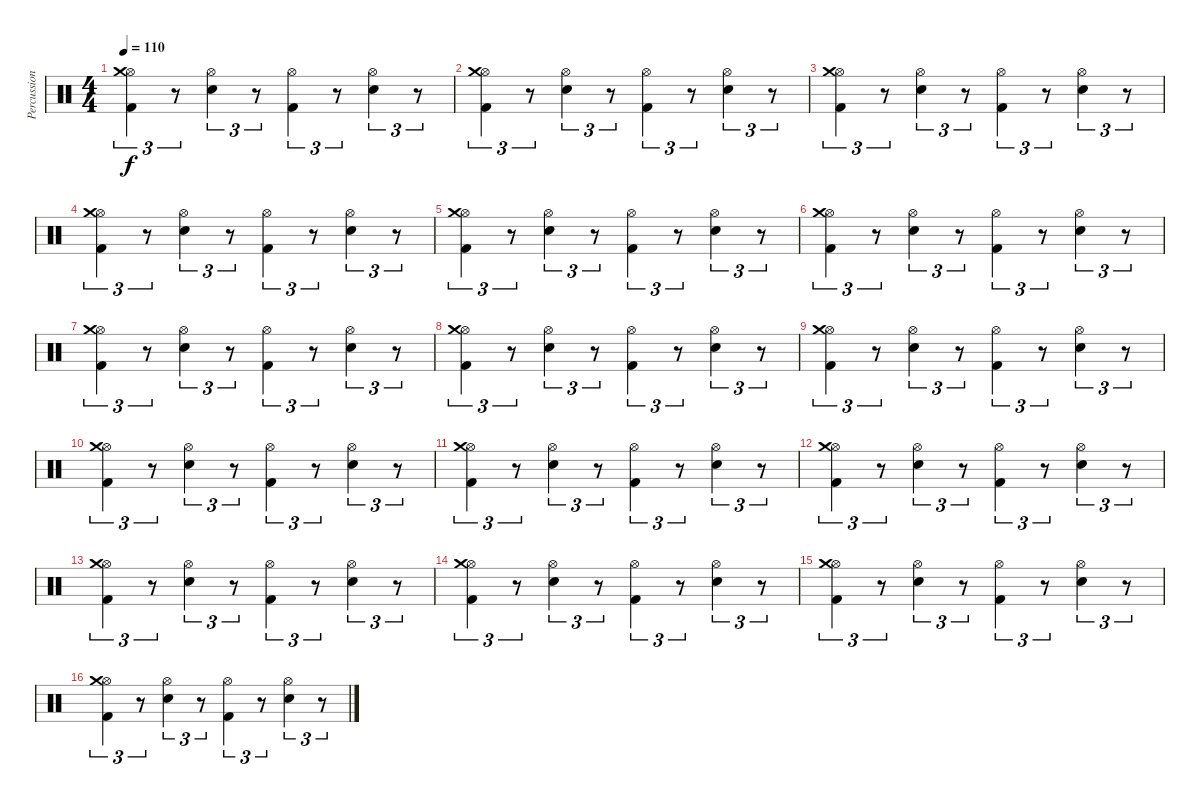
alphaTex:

\track ("Percussion" "Percussion") {instrument percussion}
\staff {score}
\articulation defaults
\ts (4 4)
\tempo 110
\clef neutral
\ks c
("Kick (hit) 2" "Hi-Hat (open)" "Crash medium (hit)").4{tu (3 2) dy f} r.8{tu (3 2)} ("Electric Snare (hit)" "Hi-Hat (open)").4{tu (3 2)} r.8{tu (3 2)} ("Kick (hit) 2" "Hi-Hat (open)").4{tu (3 2)} r.8{tu (3 2)} ("Electric Snare (hit)" "Hi-Hat (open)").4{tu (3 2)} r.8{tu (3 2)} |
("Kick (hit) 2" "Hi-Hat (open)" "Crash medium (hit)").4{tu (3 2)} r.8{tu (3 2)} ("Electric Snare (hit)" "Hi-Hat (open)").4{tu (3 2)} r.8{tu (3 2)} ("Kick (hit) 2" "Hi-Hat (open)").4{tu (3 2)} r.8{tu (3 2)} ("Electric Snare (hit)" "Hi-Hat (open)").4{tu (3 2)} r.8{tu (3 2)} |
("Kick (hit) 2" "Hi-Hat (open)" "Crash medium (hit)").4{tu (3 2)} r.8{tu (3 2)} ("Electric Snare (hit)" "Hi-Hat (open)").4{tu (3 2)} r.8{tu (3 2)} ("Kick (hit) 2" "Hi-Hat (open)").4{tu (3 2)} r.8{tu (3 2)} ("Electric Snare (hit)" "Hi-Hat (open)").4{tu (3 2)} r.8{tu (3 2)} |
("Kick (hit) 2" "Hi-Hat (open)" "Crash medium (hit)").4{tu (3 2)} r.8{tu (3 2)} ("Electric Snare (hit)" "Hi-Hat (open)").4{tu (3 2)} r.8{tu (3 2)} ("Kick (hit) 2" "Hi-Hat (open)").4{tu (3 2)} r.8{tu (3 2)} ("Electric Snare (hit)" "Hi-Hat (open)").4{tu (3 2)} r.8{tu (3 2)} |
("Kick (hit) 2" "Hi-Hat (open)" "Crash medium (hit)").4{tu (3 2)} r.8{tu (3 2)} ("Electric Snare (hit)" "Hi-Hat (open)").4{tu (3 2)} r.8{tu (3 2)} ("Kick (hit) 2" "Hi-Hat (open)").4{tu (3 2)} r.8{tu (3 2)} ("Electric Snare (hit)" "Hi-Hat (open)").4{tu (3 2)} r.8{tu (3 2)} |
("Kick (hit) 2" "Hi-Hat (open)" "Crash medium (hit)").4{tu (3 2)} r.8{tu (3 2)} ("Electric Snare (hit)" "Hi-Hat (open)").4{tu (3 2)} r.8{tu (3 2)} ("Kick (hit) 2" "Hi-Hat (open)").4{tu (3 2)} r.8{tu (3 2)} ("Electric Snare (hit)" "Hi-Hat (open)").4{tu (3 2)} r.8{tu (3 2)} |
("Kick (hit) 2" "Hi-Hat (open)" "Crash medium (hit)").4{tu (3 2)} r.8{tu (3 2)} ("Electric Snare (hit)" "Hi-Hat (open)").4{tu (3 2)} r.8{tu (3 2)} ("Kick (hit) 2" "Hi-Hat (open)").4{tu (3 2)} r.8{tu (3 2)} ("Electric Snare (hit)" "Hi-Hat (open)").4{tu (3 2)} r.8{tu (3 2)} |
("Kick (hit) 2" "Hi-Hat (open)" "Crash medium (hit)").4{tu (3 2)} r.8{tu (3 2)} ("Electric Snare (hit)" "Hi-Hat (open)").4{tu (3 2)} r.8{tu (3 2)} ("Kick (hit) 2" "Hi-Hat (open)").4{tu (3 2)} r.8{tu (3 2)} ("Electric Snare (hit)" "Hi-Hat (open)").4{tu (3 2)} r.8{tu (3 2)} |
("Kick (hit) 2" "Hi-Hat (open)" "Crash medium (hit)").4{tu (3 2)} r.8{tu (3 2)} ("Electric Snare (hit)" "Hi-Hat (open)").4{tu (3 2)} r.8{tu (3 2)} ("Kick (hit) 2" "Hi-Hat (open)").4{tu (3 2)} r.8{tu (3 2)} ("Electric Snare (hit)" "Hi-Hat (open)").4{tu (3 2)} r.8{tu (3 2)} |
("Kick (hit) 2" "Hi-Hat (open)" "Crash medium (hit)").4{tu (3 2)} r.8{tu (3 2)} ("Electric Snare (hit)" "Hi-Hat (open)").4{tu (3 2)} r.8{tu (3 2)} ("Kick (hit) 2" "Hi-Hat (open)").4{tu (3 2)} r.8{tu (3 2)} ("Electric Snare (hit)" "Hi-Hat (open)").4{tu (3 2)} r.8{tu (3 2)} |
("Kick (hit) 2" "Hi-Hat (open)" "Crash medium (hit)").4{tu (3 2)} r.8{tu (3 2)} ("Electric Snare (hit)" "Hi-Hat (open)").4{tu (3 2)} r.8{tu (3 2)} ("Kick (hit) 2" "Hi-Hat (open)").4{tu (3 2)} r.8{tu (3 2)} ("Electric Snare (hit)" "Hi-Hat (open)").4{tu (3 2)} r.8{tu (3 2)} |
("Kick (hit) 2" "Hi-Hat (open)" "Crash medium (hit)").4{tu (3 2)} r.8{tu (3 2)} ("Electric Snare (hit)" "Hi-Hat (open)").4{tu (3 2)} r.8{tu (3 2)} ("Kick (hit) 2" "Hi-Hat (open)").4{tu (3 2)} r.8{tu (3 2)} ("Electric Snare (hit)" "Hi-Hat (open)").4{tu (3 2)} r.8{tu (3 2)} |
("Kick (hit) 2" "Hi-Hat (open)" "Crash medium (hit)").4{tu (3 2)} r.8{tu (3 2)} ("Electric Snare (hit)" "Hi-Hat (open)").4{tu (3 2)} r.8{tu (3 2)} ("Kick (hit) 2" "Hi-Hat (open)").4{tu (3 2)} r.8{tu (3 2)} ("Electric Snare (hit)" "Hi-Hat (open)").4{tu (3 2)} r.8{tu (3 2)} |
("Kick (hit) 2" "Hi-Hat (open)" "Crash medium (hit)").4{tu (3 2)} r.8{tu (3 2)} ("Electric Snare (hit)" "Hi-Hat (open)").4{tu (3 2)} r.8{tu (3 2)} ("Kick (hit) 2" "Hi-Hat (open)").4{tu (3 2)} r.8{tu (3 2)} ("Electric Snare (hit)" "Hi-Hat (open)").4{tu (3 2)} r.8{tu (3 2)} |
("Kick (hit) 2" "Hi-Hat (open)" "Crash medium (hit)").4{tu (3 2)} r.8{tu (3 2)} ("Electric Snare (hit)" "Hi-Hat (open)").4{tu (3 2)} r.8{tu (3 2)} ("Kick (hit) 2" "Hi-Hat (open)").4{tu (3 2)} r.8{tu (3 2)} ("Electric Snare (hit)" "Hi-Hat (open)").4{tu (3 2)} r.8{tu (3 2)} |
("Kick (hit) 2" "Hi-Hat (open)" "Crash medium (hit)").4{tu (3 2)} r.8{tu (3 2)} ("Electric Snare (hit)" "Hi-Hat (open)").4{tu (3 2)} r.8{tu (3 2)} ("Kick (hit) 2" "Hi-Hat (open)").4{tu (3 2)} r.8{tu (3 2)} ("Electric Snare (hit)" "Hi-Hat (open)").4{tu (3 2)} r.8{tu (3 2)}
